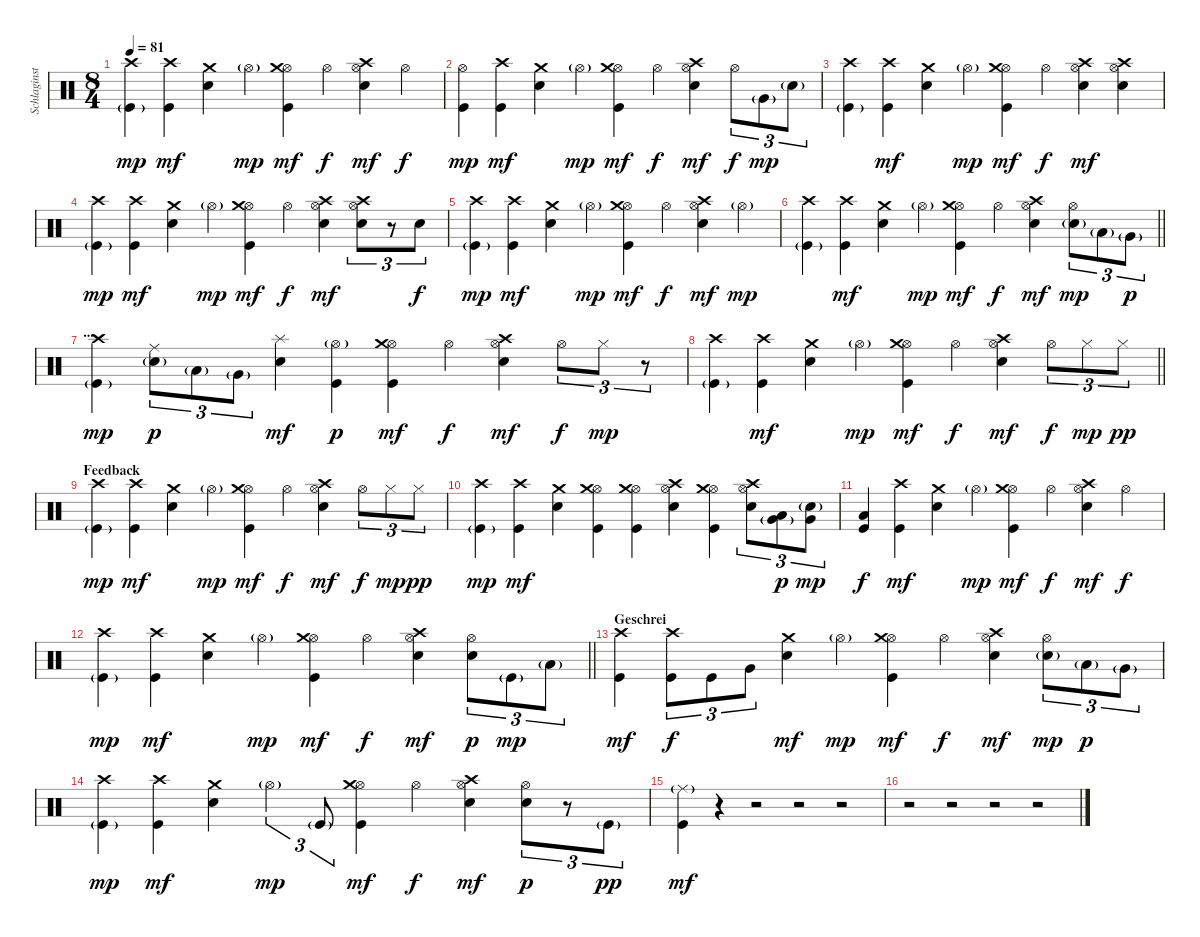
\track ("Schlaginstrumente - Auswahl" "Schlaginst") {instrument percussion}
\staff {score}
\articulation defaults
\ts (8 4)
\tempo 81
\clef neutral
\ks c
("Crash high (hit)" "Kick (hit)"{g}).4{dy mp} ("Crash high (hit)" "Kick (hit)").4{dy mf} ("Crash medium (hit)" "Snare (hit) 2").4 "Hi-Hat (open)"{g}.4{dy mp} ("Hi-Hat (open)" "Kick (hit)" "Crash medium (hit)").4{dy mf} "Hi-Hat (open)".4{dy f} ("Hi-Hat (open)" "Snare (hit) 2" "Crash high (hit)").4{dy mf} "Hi-Hat (open)".4{dy f} |
("Kick (hit)" "Hi-Hat (open)").4{dy mp} ("Crash high (hit)" "Kick (hit)").4{dy mf} ("Crash medium (hit)" "Snare (hit) 2").4 "Hi-Hat (open)"{g}.4{dy mp} ("Hi-Hat (open)" "Kick (hit)" "Crash medium (hit)").4{dy mf} "Hi-Hat (open)".4{dy f} ("Hi-Hat (open)" "Snare (hit) 2" "Crash high (hit)").4{dy mf} "Hi-Hat (open)".8{tu (3 2) dy f} "Very Low Tom (hit)"{g}.8{tu (3 2) dy mp} "Snare (hit) 2"{g}.8{tu (3 2)} |
("Crash high (hit)" "Kick (hit)"{g}).4 ("Crash high (hit)" "Kick (hit)").4{dy mf} ("Crash medium (hit)" "Snare (hit) 2").4 "Hi-Hat (open)"{g}.4{dy mp} ("Hi-Hat (open)" "Kick (hit)" "Crash medium (hit)").4{dy mf} "Hi-Hat (open)".4{dy f} ("Hi-Hat (open)" "Snare (hit) 2" "Crash high (hit)").4{dy mf} ("Hi-Hat (open)" "Snare (hit) 2" "Crash high (hit)").4 |
("Crash high (hit)" "Kick (hit)"{g}).4{dy mp} ("Crash high (hit)" "Kick (hit)").4{dy mf} ("Crash medium (hit)" "Snare (hit) 2").4 "Hi-Hat (open)"{g}.4{dy mp} ("Hi-Hat (open)" "Kick (hit)" "Crash medium (hit)").4{dy mf} "Hi-Hat (open)".4{dy f} ("Hi-Hat (open)" "Snare (hit) 2" "Crash high (hit)").4{dy mf} ("Hi-Hat (open)" "Snare (hit) 2" "Crash high (hit)").8{tu (3 2)} r.8{tu (3 2)} "Snare (hit) 2".8{tu (3 2) dy f} |
("Crash high (hit)" "Kick (hit)"{g}).4{dy mp} ("Crash high (hit)" "Kick (hit)").4{dy mf} ("Crash medium (hit)" "Snare (hit) 2").4 "Hi-Hat (open)"{g}.4{dy mp} ("Hi-Hat (open)" "Kick (hit)" "Crash medium (hit)").4{dy mf} "Hi-Hat (open)".4{dy f} ("Hi-Hat (open)" "Snare (hit) 2" "Crash high (hit)").4{dy mf} "Hi-Hat (open)"{g}.4{dy mp} |
\barLineRight lightlight
("Crash high (hit)" "Kick (hit)"{g}).4 ("Crash high (hit)" "Kick (hit)").4{dy mf} ("Crash medium (hit)" "Snare (hit) 2").4 "Hi-Hat (open)"{g}.4{dy mp} ("Hi-Hat (open)" "Kick (hit)" "Crash medium (hit)").4{dy mf} "Hi-Hat (open)".4{dy f} ("Hi-Hat (open)" "Snare (hit) 2" "Crash high (hit)").4{dy mf} ("Hi-Hat (open)" "Snare (hit) 2"{g}).8{tu (3 2) dy mp} "Low Tom (hit)"{g}.8{tu (3 2)} "Very Low Tom (hit)"{g}.8{tu (3 2) dy p} |
\section ("" "...")
("Crash high (hit)" "Kick (hit)"{g}).4{dy mp} ("Ride (middle)" "Snare (hit) 2"{g}).8{tu (3 2) dy p} "Low Tom (hit)"{g}.8{tu (3 2)} "Very Low Tom (hit)"{g}.8{tu (3 2)} ("Splash (hit)" "Snare (hit) 2").4{dy mf} ("Hi-Hat (open)"{g} "Kick (hit)").4{dy p} ("Hi-Hat (open)" "Kick (hit)" "Crash medium (hit)").4{dy mf} "Hi-Hat (open)".4{dy f} ("Hi-Hat (open)" "Snare (hit) 2" "Crash high (hit)").4{dy mf} "Hi-Hat (open)".8{tu (3 2) dy f} "Hi-Hat (closed)".8{tu (3 2) dy mp} r.8{tu (3 2)} |
\barLineRight lightlight
("Crash high (hit)" "Kick (hit)"{g}).4 ("Crash high (hit)" "Kick (hit)").4{dy mf} ("Crash medium (hit)" "Snare (hit) 2").4 "Hi-Hat (open)"{g}.4{dy mp} ("Hi-Hat (open)" "Kick (hit)" "Crash medium (hit)").4{dy mf} "Hi-Hat (open)".4{dy f} ("Hi-Hat (open)" "Snare (hit) 2" "Crash high (hit)").4{dy mf} "Hi-Hat (open)".8{tu (3 2) dy f} "Hi-Hat (closed)".8{tu (3 2) dy mp} "Hi-Hat (closed)".8{tu (3 2) dy pp} |
\section ("" "Feedback")
("Crash high (hit)" "Kick (hit)"{g}).4{dy mp} ("Crash high (hit)" "Kick (hit)").4{dy mf} ("Crash medium (hit)" "Snare (hit) 2").4 "Hi-Hat (open)"{g}.4{dy mp} ("Hi-Hat (open)" "Kick (hit)" "Crash medium (hit)").4{dy mf} "Hi-Hat (open)".4{dy f} ("Hi-Hat (open)" "Snare (hit) 2" "Crash high (hit)").4{dy mf} "Hi-Hat (open)".8{tu (3 2) dy f} "Hi-Hat (closed)".8{tu (3 2) dy mp} "Hi-Hat (closed)".8{tu (3 2) dy pp} |
("Crash high (hit)" "Kick (hit)"{g}).4{dy mp} ("Crash high (hit)" "Kick (hit)").4{dy mf} ("Crash medium (hit)" "Snare (hit) 2").4 ("Hi-Hat (open)" "Kick (hit)" "Crash medium (hit)").4 ("Hi-Hat (open)" "Kick (hit)" "Crash medium (hit)").4 ("Hi-Hat (open)" "Snare (hit) 2" "Crash high (hit)").4 ("Hi-Hat (open)" "Kick (hit)" "Crash medium (hit)").4 ("Hi-Hat (open)" "Snare (hit) 2" "Crash high (hit)").8{tu (3 2)} ("Low Tom (hit)" "Very Low Tom (hit)"{g}).8{tu (3 2) dy p} ("Very Low Tom (hit)" "Snare (hit) 2"{g}).8{tu (3 2) dy mp} |
("Kick (hit)" "Low Floor Tom (hit)").4{dy f} ("Crash high (hit)" "Kick (hit)").4{dy mf} ("Crash medium (hit)" "Snare (hit) 2").4 "Hi-Hat (open)"{g}.4{dy mp} ("Hi-Hat (open)" "Kick (hit)" "Crash medium (hit)").4{dy mf} "Hi-Hat (open)".4{dy f} ("Hi-Hat (open)" "Snare (hit) 2" "Crash high (hit)").4{dy mf} "Hi-Hat (open)".4{dy f} |
\barLineRight lightlight
("Crash high (hit)" "Kick (hit)"{g}).4{dy mp} ("Crash high (hit)" "Kick (hit)").4{dy mf} ("Crash medium (hit)" "Snare (hit) 2").4 "Hi-Hat (open)"{g}.4{dy mp} ("Hi-Hat (open)" "Kick (hit)" "Crash medium (hit)").4{dy mf} "Hi-Hat (open)".4{dy f} ("Hi-Hat (open)" "Snare (hit) 2" "Crash high (hit)").4{dy mf} ("Hi-Hat (open)" "Snare (hit) 2").8{tu (3 2) dy p} "Kick (hit)"{g}.8{tu (3 2) dy mp} "Low Tom (hit)"{g}.8{tu (3 2)} |
\section ("" "Geschrei")
("Crash high (hit)" "Kick (hit)").4{dy mf} ("Kick (hit)" "Crash high (hit)").8{tu (3 2) dy f} "Kick (hit)".8{tu (3 2)} "Very Low Tom (hit)".8{tu (3 2)} ("Crash medium (hit)" "Snare (hit) 2").4{dy mf} "Hi-Hat (open)"{g}.4{dy mp} ("Hi-Hat (open)" "Kick (hit)" "Crash medium (hit)").4{dy mf} "Hi-Hat (open)".4{dy f} ("Hi-Hat (open)" "Snare (hit) 2" "Crash high (hit)").4{dy mf} ("Snare (hit) 2"{g} "Hi-Hat (open)").8{tu (3 2) dy mp} "Low Tom (hit)"{g}.8{tu (3 2) dy p} "Very Low Tom (hit)"{g}.8{tu (3 2)} |
("Crash high (hit)" "Kick (hit)"{g}).4{dy mp} ("Crash high (hit)" "Kick (hit)").4{dy mf} ("Crash medium (hit)" "Snare (hit) 2").4 "Hi-Hat (open)"{g}.4{tu (3 2) dy mp} "Kick (hit)"{g}.8{tu (3 2)} ("Hi-Hat (open)" "Kick (hit)" "Crash medium (hit)").4{dy mf} "Hi-Hat (open)".4{dy f} ("Hi-Hat (open)" "Snare (hit) 2" "Crash high (hit)").4{dy mf} ("Hi-Hat (open)" "Snare (hit) 2").8{tu (3 2) dy p} r.8{tu (3 2)} "Kick (hit)"{g}.8{tu (3 2) dy pp} |
("Kick (hit)" "Ride (middle)"{g}).4{dy mf} r.4 r.2 r.2 r.2 |
r.2 r.2 r.2 r.2
